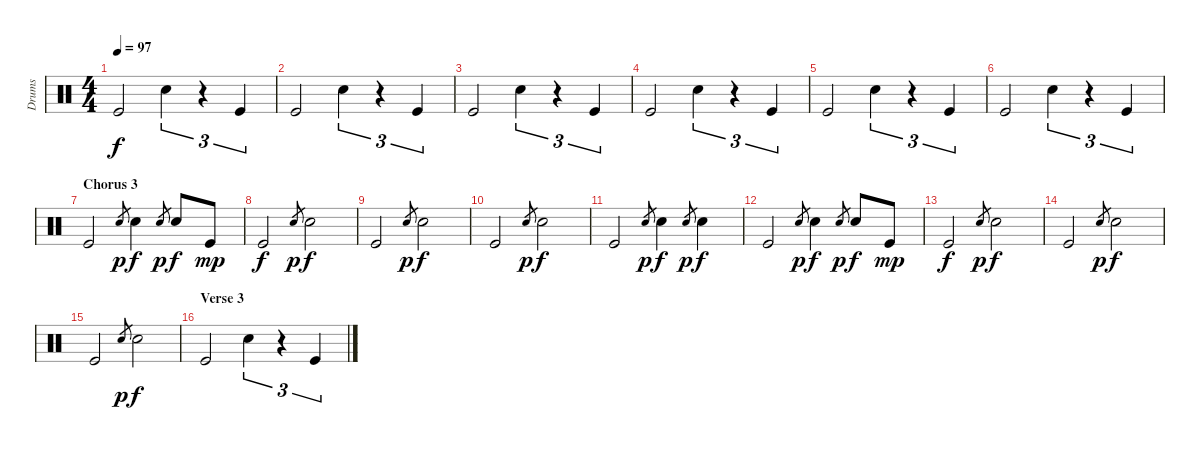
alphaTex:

\track ("Drums" "Drums") {instrument percussion}
\staff {score}
\articulation defaults
\ts (4 4)
\tempo 97
\clef neutral
\ks c "Kick (hit)".2{dy f} "Snare (hit) 2".4{tu (3 2)}
r.4{tu (3 2)} "Kick (hit)".4{tu (3 2)} |
"Kick (hit)".2 "Snare (hit) 2".4{tu (3 2)} r.4{tu (3 2)} "Kick (hit)".4{tu (3 2)} |
"Kick (hit)".2 "Snare (hit) 2".4{tu (3 2)} r.4{tu (3 2)} "Kick (hit)".4{tu (3 2)} |
"Kick (hit)".2 "Snare (hit) 2".4{tu (3 2)} r.4{tu (3 2)} "Kick (hit)".4{tu (3 2)} |
"Kick (hit)".2 "Snare (hit) 2".4{tu (3 2)} r.4{tu (3 2)} "Kick (hit)".4{tu (3 2)} |
"Kick (hit)".2 "Snare (hit) 2".4{tu (3 2)} r.4{tu (3 2)} "Kick (hit)".4{tu (3 2)} |
\section ("" "Chorus 3")
"Kick (hit)".2 "Snare (hit) 2".8{gr dy p} "Snare (hit) 2".4{dy f} "Snare (hit) 2".8{gr dy p} "Snare (hit) 2".8{dy f} "Kick (hit)".8{dy mp} |
"Kick (hit)".2{dy f} "Snare (hit) 2".8{gr dy p} "Snare (hit) 2".2{dy f} |
"Kick (hit)".2 "Snare (hit) 2".8{gr dy p} "Snare (hit) 2".2{dy f} |
"Kick (hit)".2 "Snare (hit) 2".8{gr dy p} "Snare (hit) 2".2{dy f} |
"Kick (hit)".2 "Snare (hit) 2".8{gr dy p} "Snare (hit) 2".4{dy f} "Snare (hit) 2".8{gr dy p} "Snare (hit) 2".4{dy f} |
"Kick (hit)".2 "Snare (hit) 2".8{gr dy p} "Snare (hit) 2".4{dy f} "Snare (hit) 2".8{gr dy p} "Snare (hit) 2".8{dy f} "Kick (hit)".8{dy mp} |
"Kick (hit)".2{dy f} "Snare (hit) 2".8{gr dy p} "Snare (hit) 2".2{dy f} |
"Kick (hit)".2 "Snare (hit) 2".8{gr dy p} "Snare (hit) 2".2{dy f} |
"Kick (hit)".2 "Snare (hit) 2".8{gr dy p} "Snare (hit) 2".2{dy f} |
\section ("" "Verse 3")
"Kick (hit)".2 "Snare (hit) 2".4{tu (3 2)} r.4{tu (3 2)} "Kick (hit)".4{tu (3 2)}
